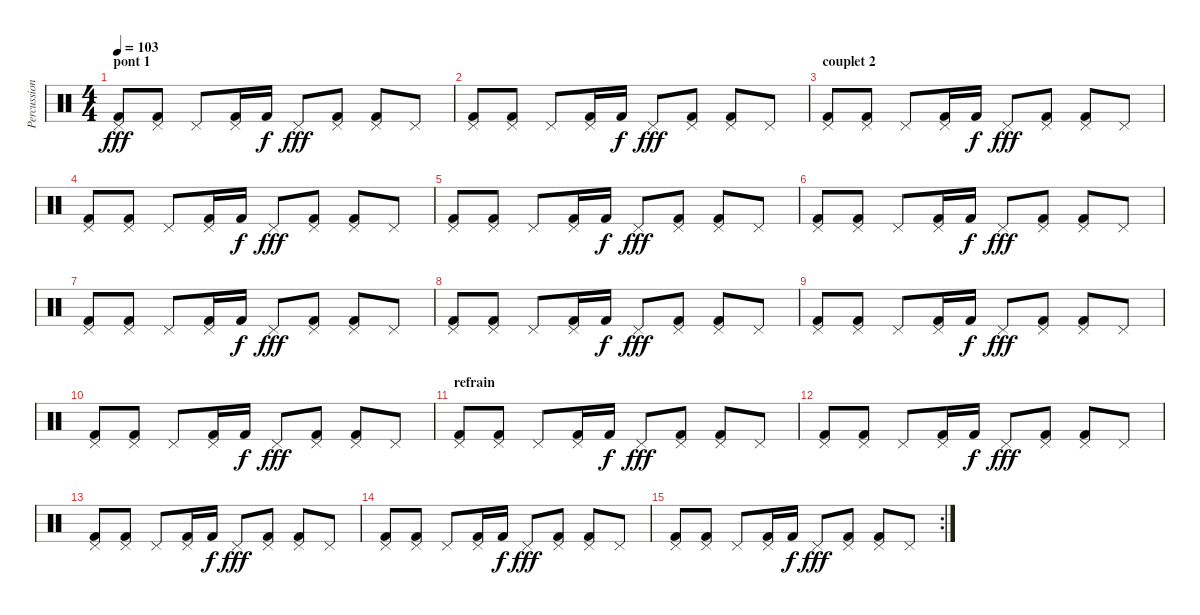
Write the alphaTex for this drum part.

\track ("Percussions" "Percussion") {instrument percussion}
\staff {score}
\articulation defaults
\ts (4 4)
\section ("" "pont 1")
\tempo 103
\clef neutral
\ks c
("Pedal Hi-Hat (hit)" "Kick (hit) 2").8{dy fff} ("Pedal Hi-Hat (hit)" "Kick (hit) 2").8 "Pedal Hi-Hat (hit)".8 ("Pedal Hi-Hat (hit)" "Kick (hit) 2").16 "Kick (hit) 2".16{dy f} "Pedal Hi-Hat (hit)".8{dy fff} ("Pedal Hi-Hat (hit)" "Kick (hit) 2").8 ("Pedal Hi-Hat (hit)" "Kick (hit) 2").8 "Pedal Hi-Hat (hit)".8 |
("Pedal Hi-Hat (hit)" "Kick (hit) 2").8 ("Pedal Hi-Hat (hit)" "Kick (hit) 2").8 "Pedal Hi-Hat (hit)".8 ("Pedal Hi-Hat (hit)" "Kick (hit) 2").16 "Kick (hit) 2".16{dy f} "Pedal Hi-Hat (hit)".8{dy fff} ("Pedal Hi-Hat (hit)" "Kick (hit) 2").8 ("Pedal Hi-Hat (hit)" "Kick (hit) 2").8 "Pedal Hi-Hat (hit)".8 |
\section ("" "couplet 2")
("Pedal Hi-Hat (hit)" "Kick (hit) 2").8 ("Pedal Hi-Hat (hit)" "Kick (hit) 2").8 "Pedal Hi-Hat (hit)".8 ("Pedal Hi-Hat (hit)" "Kick (hit) 2").16 "Kick (hit) 2".16{dy f} "Pedal Hi-Hat (hit)".8{dy fff} ("Pedal Hi-Hat (hit)" "Kick (hit) 2").8 ("Pedal Hi-Hat (hit)" "Kick (hit) 2").8 "Pedal Hi-Hat (hit)".8 |
("Pedal Hi-Hat (hit)" "Kick (hit) 2").8 ("Pedal Hi-Hat (hit)" "Kick (hit) 2").8 "Pedal Hi-Hat (hit)".8 ("Pedal Hi-Hat (hit)" "Kick (hit) 2").16 "Kick (hit) 2".16{dy f} "Pedal Hi-Hat (hit)".8{dy fff} ("Pedal Hi-Hat (hit)" "Kick (hit) 2").8 ("Pedal Hi-Hat (hit)" "Kick (hit) 2").8 "Pedal Hi-Hat (hit)".8 |
("Pedal Hi-Hat (hit)" "Kick (hit) 2").8 ("Pedal Hi-Hat (hit)" "Kick (hit) 2").8 "Pedal Hi-Hat (hit)".8 ("Pedal Hi-Hat (hit)" "Kick (hit) 2").16 "Kick (hit) 2".16{dy f} "Pedal Hi-Hat (hit)".8{dy fff} ("Pedal Hi-Hat (hit)" "Kick (hit) 2").8 ("Pedal Hi-Hat (hit)" "Kick (hit) 2").8 "Pedal Hi-Hat (hit)".8 |
("Pedal Hi-Hat (hit)" "Kick (hit) 2").8 ("Pedal Hi-Hat (hit)" "Kick (hit) 2").8 "Pedal Hi-Hat (hit)".8 ("Pedal Hi-Hat (hit)" "Kick (hit) 2").16 "Kick (hit) 2".16{dy f} "Pedal Hi-Hat (hit)".8{dy fff} ("Pedal Hi-Hat (hit)" "Kick (hit) 2").8 ("Pedal Hi-Hat (hit)" "Kick (hit) 2").8 "Pedal Hi-Hat (hit)".8 |
("Pedal Hi-Hat (hit)" "Kick (hit) 2").8 ("Pedal Hi-Hat (hit)" "Kick (hit) 2").8 "Pedal Hi-Hat (hit)".8 ("Pedal Hi-Hat (hit)" "Kick (hit) 2").16 "Kick (hit) 2".16{dy f} "Pedal Hi-Hat (hit)".8{dy fff} ("Pedal Hi-Hat (hit)" "Kick (hit) 2").8 ("Pedal Hi-Hat (hit)" "Kick (hit) 2").8 "Pedal Hi-Hat (hit)".8 |
("Pedal Hi-Hat (hit)" "Kick (hit) 2").8 ("Pedal Hi-Hat (hit)" "Kick (hit) 2").8 "Pedal Hi-Hat (hit)".8 ("Pedal Hi-Hat (hit)" "Kick (hit) 2").16 "Kick (hit) 2".16{dy f} "Pedal Hi-Hat (hit)".8{dy fff} ("Pedal Hi-Hat (hit)" "Kick (hit) 2").8 ("Pedal Hi-Hat (hit)" "Kick (hit) 2").8 "Pedal Hi-Hat (hit)".8 |
("Pedal Hi-Hat (hit)" "Kick (hit) 2").8 ("Pedal Hi-Hat (hit)" "Kick (hit) 2").8 "Pedal Hi-Hat (hit)".8 ("Pedal Hi-Hat (hit)" "Kick (hit) 2").16 "Kick (hit) 2".16{dy f} "Pedal Hi-Hat (hit)".8{dy fff} ("Pedal Hi-Hat (hit)" "Kick (hit) 2").8 ("Pedal Hi-Hat (hit)" "Kick (hit) 2").8 "Pedal Hi-Hat (hit)".8 |
("Pedal Hi-Hat (hit)" "Kick (hit) 2").8 ("Pedal Hi-Hat (hit)" "Kick (hit) 2").8 "Pedal Hi-Hat (hit)".8 ("Pedal Hi-Hat (hit)" "Kick (hit) 2").16 "Kick (hit) 2".16{dy f} "Pedal Hi-Hat (hit)".8{dy fff} ("Pedal Hi-Hat (hit)" "Kick (hit) 2").8 ("Pedal Hi-Hat (hit)" "Kick (hit) 2").8 "Pedal Hi-Hat (hit)".8 |
\section ("" "refrain")
("Pedal Hi-Hat (hit)" "Kick (hit) 2").8 ("Pedal Hi-Hat (hit)" "Kick (hit) 2").8 "Pedal Hi-Hat (hit)".8 ("Pedal Hi-Hat (hit)" "Kick (hit) 2").16 "Kick (hit) 2".16{dy f} "Pedal Hi-Hat (hit)".8{dy fff} ("Pedal Hi-Hat (hit)" "Kick (hit) 2").8 ("Pedal Hi-Hat (hit)" "Kick (hit) 2").8 "Pedal Hi-Hat (hit)".8 |
("Pedal Hi-Hat (hit)" "Kick (hit) 2").8 ("Pedal Hi-Hat (hit)" "Kick (hit) 2").8 "Pedal Hi-Hat (hit)".8 ("Pedal Hi-Hat (hit)" "Kick (hit) 2").16 "Kick (hit) 2".16{dy f} "Pedal Hi-Hat (hit)".8{dy fff} ("Pedal Hi-Hat (hit)" "Kick (hit) 2").8 ("Pedal Hi-Hat (hit)" "Kick (hit) 2").8 "Pedal Hi-Hat (hit)".8 |
("Pedal Hi-Hat (hit)" "Kick (hit) 2").8 ("Pedal Hi-Hat (hit)" "Kick (hit) 2").8 "Pedal Hi-Hat (hit)".8 ("Pedal Hi-Hat (hit)" "Kick (hit) 2").16 "Kick (hit) 2".16{dy f} "Pedal Hi-Hat (hit)".8{dy fff} ("Pedal Hi-Hat (hit)" "Kick (hit) 2").8 ("Pedal Hi-Hat (hit)" "Kick (hit) 2").8 "Pedal Hi-Hat (hit)".8 |
("Pedal Hi-Hat (hit)" "Kick (hit) 2").8 ("Pedal Hi-Hat (hit)" "Kick (hit) 2").8 "Pedal Hi-Hat (hit)".8 ("Pedal Hi-Hat (hit)" "Kick (hit) 2").16 "Kick (hit) 2".16{dy f} "Pedal Hi-Hat (hit)".8{dy fff} ("Pedal Hi-Hat (hit)" "Kick (hit) 2").8 ("Pedal Hi-Hat (hit)" "Kick (hit) 2").8 "Pedal Hi-Hat (hit)".8 |
\rc 2
("Pedal Hi-Hat (hit)" "Kick (hit) 2").8 ("Pedal Hi-Hat (hit)" "Kick (hit) 2").8 "Pedal Hi-Hat (hit)".8 ("Pedal Hi-Hat (hit)" "Kick (hit) 2").16 "Kick (hit) 2".16{dy f} "Pedal Hi-Hat (hit)".8{dy fff} ("Pedal Hi-Hat (hit)" "Kick (hit) 2").8 ("Pedal Hi-Hat (hit)" "Kick (hit) 2").8 "Pedal Hi-Hat (hit)".8
